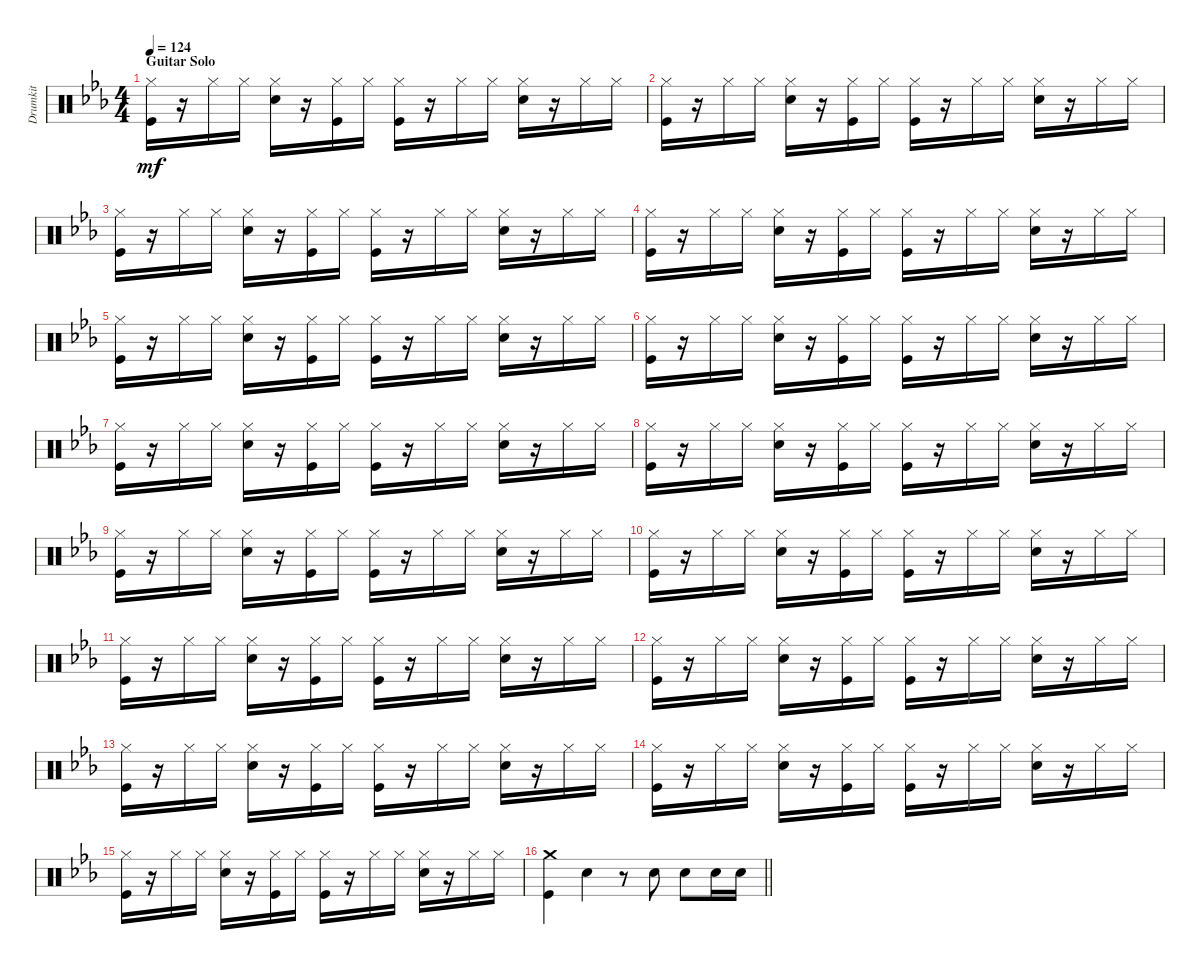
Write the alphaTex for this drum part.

\track ("Drumkit" "Drumkit") {instrument percussion}
\staff {score}
\articulation defaults
\ts (4 4)
\section ("" "Guitar Solo")
\tempo 124
\clef neutral
\ks eb
("Hi-Hat (closed)" "Kick (hit)").16{dy mf} r.16 "Hi-Hat (closed)".16 "Hi-Hat (closed)".16 ("Hi-Hat (closed)" "Snare (hit) 2").16 r.16 ("Hi-Hat (closed)" "Kick (hit)").16 "Hi-Hat (closed)".16 ("Hi-Hat (closed)" "Kick (hit)").16 r.16 "Hi-Hat (closed)".16 "Hi-Hat (closed)".16 ("Hi-Hat (closed)" "Snare (hit) 2").16 r.16 "Hi-Hat (closed)".16 "Hi-Hat (closed)".16 |
("Hi-Hat (closed)" "Kick (hit)").16 r.16 "Hi-Hat (closed)".16 "Hi-Hat (closed)".16 ("Hi-Hat (closed)" "Snare (hit) 2").16 r.16 ("Hi-Hat (closed)" "Kick (hit)").16 "Hi-Hat (closed)".16 ("Hi-Hat (closed)" "Kick (hit)").16 r.16 "Hi-Hat (closed)".16 "Hi-Hat (closed)".16 ("Hi-Hat (closed)" "Snare (hit) 2").16 r.16 "Hi-Hat (closed)".16 "Hi-Hat (closed)".16 |
("Hi-Hat (closed)" "Kick (hit)").16 r.16 "Hi-Hat (closed)".16 "Hi-Hat (closed)".16 ("Hi-Hat (closed)" "Snare (hit) 2").16 r.16 ("Hi-Hat (closed)" "Kick (hit)").16 "Hi-Hat (closed)".16 ("Hi-Hat (closed)" "Kick (hit)").16 r.16 "Hi-Hat (closed)".16 "Hi-Hat (closed)".16 ("Hi-Hat (closed)" "Snare (hit) 2").16 r.16 "Hi-Hat (closed)".16 "Hi-Hat (closed)".16 |
("Hi-Hat (closed)" "Kick (hit)").16 r.16 "Hi-Hat (closed)".16 "Hi-Hat (closed)".16 ("Hi-Hat (closed)" "Snare (hit) 2").16 r.16 ("Hi-Hat (closed)" "Kick (hit)").16 "Hi-Hat (closed)".16 ("Hi-Hat (closed)" "Kick (hit)").16 r.16 "Hi-Hat (closed)".16 "Hi-Hat (closed)".16 ("Hi-Hat (closed)" "Snare (hit) 2").16 r.16 "Hi-Hat (closed)".16 "Hi-Hat (closed)".16 |
("Hi-Hat (closed)" "Kick (hit)").16 r.16 "Hi-Hat (closed)".16 "Hi-Hat (closed)".16 ("Hi-Hat (closed)" "Snare (hit) 2").16 r.16 ("Hi-Hat (closed)" "Kick (hit)").16 "Hi-Hat (closed)".16 ("Hi-Hat (closed)" "Kick (hit)").16 r.16 "Hi-Hat (closed)".16 "Hi-Hat (closed)".16 ("Hi-Hat (closed)" "Snare (hit) 2").16 r.16 "Hi-Hat (closed)".16 "Hi-Hat (closed)".16 |
("Hi-Hat (closed)" "Kick (hit)").16 r.16 "Hi-Hat (closed)".16 "Hi-Hat (closed)".16 ("Hi-Hat (closed)" "Snare (hit) 2").16 r.16 ("Hi-Hat (closed)" "Kick (hit)").16 "Hi-Hat (closed)".16 ("Hi-Hat (closed)" "Kick (hit)").16 r.16 "Hi-Hat (closed)".16 "Hi-Hat (closed)".16 ("Hi-Hat (closed)" "Snare (hit) 2").16 r.16 "Hi-Hat (closed)".16 "Hi-Hat (closed)".16 |
("Hi-Hat (closed)" "Kick (hit)").16 r.16 "Hi-Hat (closed)".16 "Hi-Hat (closed)".16 ("Hi-Hat (closed)" "Snare (hit) 2").16 r.16 ("Hi-Hat (closed)" "Kick (hit)").16 "Hi-Hat (closed)".16 ("Hi-Hat (closed)" "Kick (hit)").16 r.16 "Hi-Hat (closed)".16 "Hi-Hat (closed)".16 ("Hi-Hat (closed)" "Snare (hit) 2").16 r.16 "Hi-Hat (closed)".16 "Hi-Hat (closed)".16 |
("Hi-Hat (closed)" "Kick (hit)").16 r.16 "Hi-Hat (closed)".16 "Hi-Hat (closed)".16 ("Hi-Hat (closed)" "Snare (hit) 2").16 r.16 ("Hi-Hat (closed)" "Kick (hit)").16 "Hi-Hat (closed)".16 ("Hi-Hat (closed)" "Kick (hit)").16 r.16 "Hi-Hat (closed)".16 "Hi-Hat (closed)".16 ("Hi-Hat (closed)" "Snare (hit) 2").16 r.16 "Hi-Hat (closed)".16 "Hi-Hat (closed)".16 |
("Hi-Hat (closed)" "Kick (hit)").16 r.16 "Hi-Hat (closed)".16 "Hi-Hat (closed)".16 ("Hi-Hat (closed)" "Snare (hit) 2").16 r.16 ("Hi-Hat (closed)" "Kick (hit)").16 "Hi-Hat (closed)".16 ("Hi-Hat (closed)" "Kick (hit)").16 r.16 "Hi-Hat (closed)".16 "Hi-Hat (closed)".16 ("Hi-Hat (closed)" "Snare (hit) 2").16 r.16 "Hi-Hat (closed)".16 "Hi-Hat (closed)".16 |
("Hi-Hat (closed)" "Kick (hit)").16 r.16 "Hi-Hat (closed)".16 "Hi-Hat (closed)".16 ("Hi-Hat (closed)" "Snare (hit) 2").16 r.16 ("Hi-Hat (closed)" "Kick (hit)").16 "Hi-Hat (closed)".16 ("Hi-Hat (closed)" "Kick (hit)").16 r.16 "Hi-Hat (closed)".16 "Hi-Hat (closed)".16 ("Hi-Hat (closed)" "Snare (hit) 2").16 r.16 "Hi-Hat (closed)".16 "Hi-Hat (closed)".16 |
("Hi-Hat (closed)" "Kick (hit)").16 r.16 "Hi-Hat (closed)".16 "Hi-Hat (closed)".16 ("Hi-Hat (closed)" "Snare (hit) 2").16 r.16 ("Hi-Hat (closed)" "Kick (hit)").16 "Hi-Hat (closed)".16 ("Hi-Hat (closed)" "Kick (hit)").16 r.16 "Hi-Hat (closed)".16 "Hi-Hat (closed)".16 ("Hi-Hat (closed)" "Snare (hit) 2").16 r.16 "Hi-Hat (closed)".16 "Hi-Hat (closed)".16 |
("Hi-Hat (closed)" "Kick (hit)").16 r.16 "Hi-Hat (closed)".16 "Hi-Hat (closed)".16 ("Hi-Hat (closed)" "Snare (hit) 2").16 r.16 ("Hi-Hat (closed)" "Kick (hit)").16 "Hi-Hat (closed)".16 ("Hi-Hat (closed)" "Kick (hit)").16 r.16 "Hi-Hat (closed)".16 "Hi-Hat (closed)".16 ("Hi-Hat (closed)" "Snare (hit) 2").16 r.16 "Hi-Hat (closed)".16 "Hi-Hat (closed)".16 |
("Hi-Hat (closed)" "Kick (hit)").16 r.16 "Hi-Hat (closed)".16 "Hi-Hat (closed)".16 ("Hi-Hat (closed)" "Snare (hit) 2").16 r.16 ("Hi-Hat (closed)" "Kick (hit)").16 "Hi-Hat (closed)".16 ("Hi-Hat (closed)" "Kick (hit)").16 r.16 "Hi-Hat (closed)".16 "Hi-Hat (closed)".16 ("Hi-Hat (closed)" "Snare (hit) 2").16 r.16 "Hi-Hat (closed)".16 "Hi-Hat (closed)".16 |
("Hi-Hat (closed)" "Kick (hit)").16 r.16 "Hi-Hat (closed)".16 "Hi-Hat (closed)".16 ("Hi-Hat (closed)" "Snare (hit) 2").16 r.16 ("Hi-Hat (closed)" "Kick (hit)").16 "Hi-Hat (closed)".16 ("Hi-Hat (closed)" "Kick (hit)").16 r.16 "Hi-Hat (closed)".16 "Hi-Hat (closed)".16 ("Hi-Hat (closed)" "Snare (hit) 2").16 r.16 "Hi-Hat (closed)".16 "Hi-Hat (closed)".16 |
("Hi-Hat (closed)" "Kick (hit)").16 r.16 "Hi-Hat (closed)".16 "Hi-Hat (closed)".16 ("Hi-Hat (closed)" "Snare (hit) 2").16 r.16 ("Hi-Hat (closed)" "Kick (hit)").16 "Hi-Hat (closed)".16 ("Hi-Hat (closed)" "Kick (hit)").16 r.16 "Hi-Hat (closed)".16 "Hi-Hat (closed)".16 ("Hi-Hat (closed)" "Snare (hit) 2").16 r.16 "Hi-Hat (closed)".16 "Hi-Hat (closed)".16 |
\barLineRight lightlight
("Crash medium (hit)" "Kick (hit)").4 "Snare (hit) 2".4 r.8 "Snare (hit) 2".8 "Snare (hit) 2".8 "Snare (hit) 2".16 "Snare (hit) 2".16
